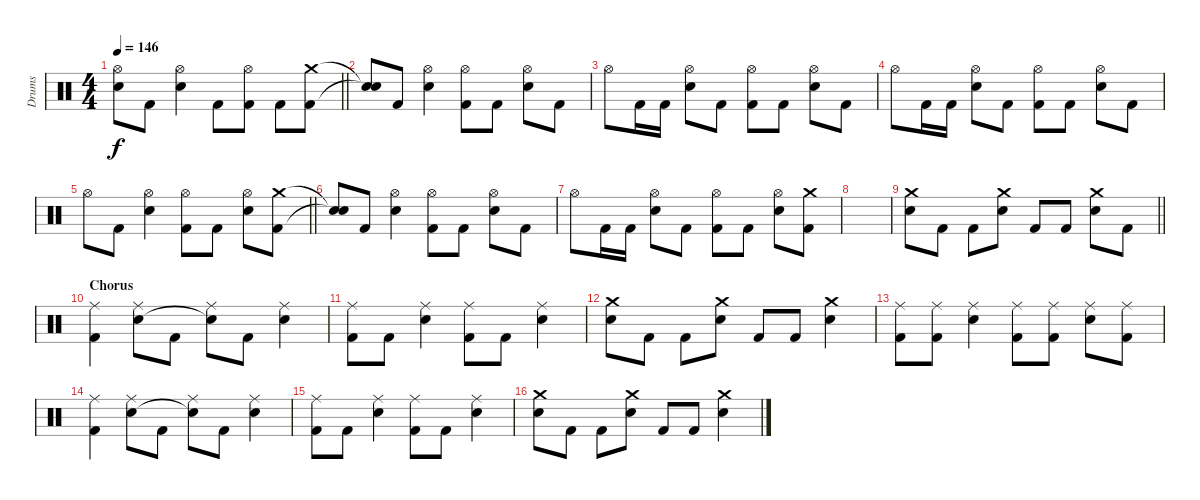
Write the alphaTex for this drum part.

\track ("Drums" "Drums") {instrument percussion}
\staff {score}
\articulation defaults
\ts (4 4)
\tempo 146
\clef neutral
\barLineRight lightlight
\ks c
("Hi-Hat (open)" "Snare (hit)"{t}).8{dy f} "Kick (hit) 2".8 ("Hi-Hat (open)" "Electric Snare (hit)").4 "Kick (hit) 2".8 ("Hi-Hat (open)" "Kick (hit) 2").8 "Kick (hit) 2".8 ("Crash medium (hit)" "Kick (hit) 2").8 |
("Snare (hit)"{t} "Snare (hit)"{t}).8 "Kick (hit) 2".8 ("Hi-Hat (open)" "Electric Snare (hit)").4 ("Hi-Hat (open)" "Kick (hit) 2").8 "Kick (hit) 2".8 ("Hi-Hat (open)" "Electric Snare (hit)").8 "Kick (hit) 2".8 |
"Hi-Hat (open)".8 "Kick (hit) 2".16 "Kick (hit) 2".16 ("Hi-Hat (open)" "Electric Snare (hit)").8 "Kick (hit) 2".8 ("Hi-Hat (open)" "Kick (hit) 2").8 "Kick (hit) 2".8 ("Hi-Hat (open)" "Electric Snare (hit)").8 "Kick (hit) 2".8 |
"Hi-Hat (open)".8 "Kick (hit) 2".16 "Kick (hit) 2".16 ("Hi-Hat (open)" "Electric Snare (hit)").8 "Kick (hit) 2".8 ("Hi-Hat (open)" "Kick (hit) 2").8 "Kick (hit) 2".8 ("Hi-Hat (open)" "Electric Snare (hit)").8 "Kick (hit) 2".8 |
\barLineRight lightlight "Hi-Hat (open)".8 "Kick (hit) 2".8
("Hi-Hat (open)" "Electric Snare (hit)").4 ("Hi-Hat (open)" "Kick (hit) 2").8 "Kick (hit) 2".8 ("Hi-Hat (open)" "Electric Snare (hit)").8 ("Crash medium (hit)" "Kick (hit) 2").8 |
("Snare (hit)"{t} "Snare (hit)"{t}).8 "Kick (hit) 2".8 ("Hi-Hat (open)" "Electric Snare (hit)").4 ("Hi-Hat (open)" "Kick (hit) 2").8 "Kick (hit) 2".8 ("Hi-Hat (open)" "Electric Snare (hit)").8 "Kick (hit) 2".8 |
"Hi-Hat (open)".8 "Kick (hit) 2".16 "Kick (hit) 2".16 ("Hi-Hat (open)" "Electric Snare (hit)").8 "Kick (hit) 2".8 ("Hi-Hat (open)" "Kick (hit) 2").8 "Kick (hit) 2".8 ("Hi-Hat (open)" "Electric Snare (hit)").8 ("Crash medium (hit)" "Kick (hit) 2").8 |
|
\barLineRight lightlight
("Crash medium (hit)" "Electric Snare (hit)").8 "Kick (hit) 2".8 "Kick (hit) 2".8 ("Crash medium (hit)" "Electric Snare (hit)").8 "Kick (hit) 2".8 "Kick (hit) 2".8 ("Crash medium (hit)" "Electric Snare (hit)").8 "Kick (hit) 2".8 |
\section ("" "Chorus")
("Ride (middle)" "Kick (hit) 2").4 ("Ride (middle)" "Electric Snare (hit)").8 "Kick (hit) 2".8 ("Ride (middle)" "Snare (hit)"{t}).8 "Kick (hit) 2".8 ("Ride (middle)" "Electric Snare (hit)").4 |
("Ride (middle)" "Kick (hit) 2").8 "Kick (hit) 2".8 ("Ride (middle)" "Electric Snare (hit)").4 ("Ride (middle)" "Kick (hit) 2").8 "Kick (hit) 2".8 ("Ride (middle)" "Electric Snare (hit)").4 |
("Crash medium (hit)" "Electric Snare (hit)").8 "Kick (hit) 2".8 "Kick (hit) 2".8 ("Crash medium (hit)" "Electric Snare (hit)").8 "Kick (hit) 2".8 "Kick (hit) 2".8 ("Crash medium (hit)" "Electric Snare (hit)").4 |
("Ride (middle)" "Kick (hit) 2").8 ("Ride (middle)" "Kick (hit) 2").8 ("Ride (middle)" "Electric Snare (hit)").4 ("Ride (middle)" "Kick (hit) 2").8 ("Ride (middle)" "Kick (hit) 2").8 ("Ride (middle)" "Electric Snare (hit)").8 ("Ride (middle)" "Kick (hit) 2").8 |
("Ride (middle)" "Kick (hit) 2").4 ("Ride (middle)" "Electric Snare (hit)").8 "Kick (hit) 2".8 ("Ride (middle)" "Snare (hit)"{t}).8 "Kick (hit) 2".8 ("Ride (middle)" "Electric Snare (hit)").4 |
("Ride (middle)" "Kick (hit) 2").8 "Kick (hit) 2".8 ("Ride (middle)" "Electric Snare (hit)").4 ("Ride (middle)" "Kick (hit) 2").8 "Kick (hit) 2".8 ("Ride (middle)" "Electric Snare (hit)").4 |
("Crash medium (hit)" "Electric Snare (hit)").8 "Kick (hit) 2".8 "Kick (hit) 2".8 ("Crash medium (hit)" "Electric Snare (hit)").8 "Kick (hit) 2".8 "Kick (hit) 2".8 ("Crash medium (hit)" "Electric Snare (hit)").4
